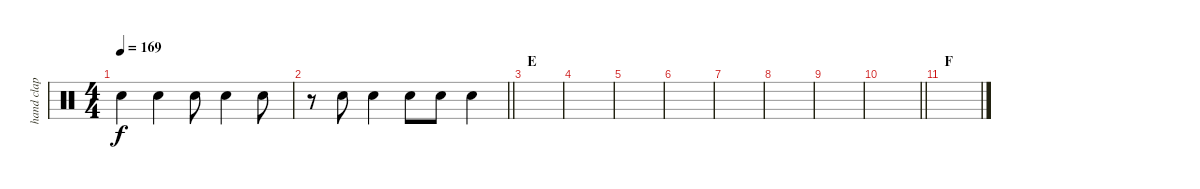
\track ("hand clap" "hand clap") {instrument percussion}
\staff {score}
\articulation defaults
\ts (4 4)
\tempo 169
\clef neutral
\ks c "Hand Clap (hit)".4{dy f} "Hand Clap (hit)".4 "Hand Clap (hit)".8 "Hand Clap (hit)".4 "Hand Clap (hit)".8
|
\barLineRight lightlight
r.8 "Hand Clap (hit)".8 "Hand Clap (hit)".4 "Hand Clap (hit)".8 "Hand Clap (hit)".8 "Hand Clap (hit)".4 |
\section ("" "E")
|
|
|
|
|
|
|
\barLineRight lightlight
|
\section ("" "F")
